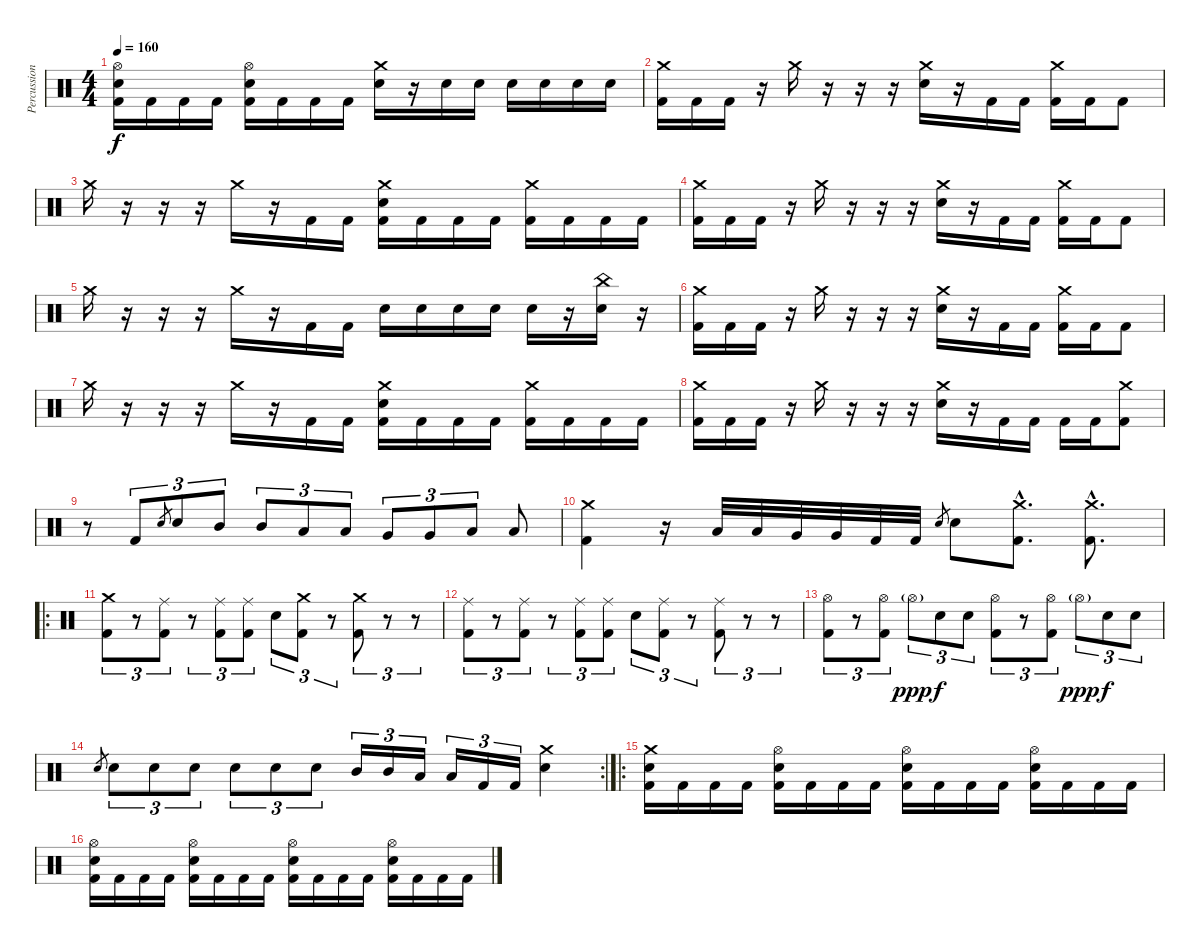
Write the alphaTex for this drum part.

\track ("Percussion" "Percussion") {instrument percussion}
\staff {score}
\articulation defaults
\ts (4 4)
\tempo 160
\clef neutral
\ks c
("Hi-Hat (open)" "Kick (hit) 2" "Electric Snare (hit)").16{dy f} "Kick (hit) 2".16 "Kick (hit) 2".16 "Kick (hit) 2".16 ("Hi-Hat (open)" "Kick (hit) 2" "Electric Snare (hit)").16 "Kick (hit) 2".16 "Kick (hit) 2".16 "Kick (hit) 2".16 ("Crash medium (hit)" "Electric Snare (hit)").16 r.16 "Electric Snare (hit)".16 "Electric Snare (hit)".16 "Electric Snare (hit)".16 "Electric Snare (hit)".16 "Electric Snare (hit)".16 "Electric Snare (hit)".16 |
("Crash medium (hit)" "Kick (hit) 2").16 "Kick (hit) 2".16 "Kick (hit) 2".16 r.16 "Crash medium (hit)".16 r.16 r.16 r.16 ("Crash medium (hit)" "Electric Snare (hit)").16 r.16 "Kick (hit) 2".16 "Kick (hit) 2".16 ("Crash medium (hit)" "Kick (hit) 2").16 "Kick (hit) 2".16 "Kick (hit) 2".8 |
"Crash medium (hit)".16 r.16 r.16 r.16 "Crash medium (hit)".16 r.16 "Kick (hit) 2".16 "Kick (hit) 2".16 ("Crash medium (hit)" "Kick (hit) 2" "Electric Snare (hit)").16 "Kick (hit) 2".16 "Kick (hit) 2".16 "Kick (hit) 2".16 ("Crash medium (hit)" "Kick (hit) 2").16 "Kick (hit) 2".16 "Kick (hit) 2".16 "Kick (hit) 2".16 |
("Crash medium (hit)" "Kick (hit) 2").16 "Kick (hit) 2".16 "Kick (hit) 2".16 r.16 "Crash medium (hit)".16 r.16 r.16 r.16 ("Crash medium (hit)" "Electric Snare (hit)").16 r.16 "Kick (hit) 2".16 "Kick (hit) 2".16 ("Crash medium (hit)" "Kick (hit) 2").16 "Kick (hit) 2".16 "Kick (hit) 2".8 |
"Crash medium (hit)".16 r.16 r.16 r.16 "Crash medium (hit)".16 r.16 "Kick (hit) 2".16 "Kick (hit) 2".16 "Electric Snare (hit)".16 "Electric Snare (hit)".16 "Electric Snare (hit)".16 "Electric Snare (hit)".16 "Electric Snare (hit)".16 r.16 ("China (hit)" "Electric Snare (hit)").16 r.16 |
("Crash medium (hit)" "Kick (hit) 2").16 "Kick (hit) 2".16 "Kick (hit) 2".16 r.16 "Crash medium (hit)".16 r.16 r.16 r.16 ("Crash medium (hit)" "Electric Snare (hit)").16 r.16 "Kick (hit) 2".16 "Kick (hit) 2".16 ("Crash medium (hit)" "Kick (hit) 2").16 "Kick (hit) 2".16 "Kick (hit) 2".8 |
"Crash medium (hit)".16 r.16 r.16 r.16 "Crash medium (hit)".16 r.16 "Kick (hit) 2".16 "Kick (hit) 2".16 ("Crash medium (hit)" "Kick (hit) 2" "Electric Snare (hit)").16 "Kick (hit) 2".16 "Kick (hit) 2".16 "Kick (hit) 2".16 ("Crash medium (hit)" "Kick (hit) 2").16 "Kick (hit) 2".16 "Kick (hit) 2".16 "Kick (hit) 2".16 |
("Crash medium (hit)" "Kick (hit) 2").16 "Kick (hit) 2".16 "Kick (hit) 2".16 r.16 "Crash medium (hit)".16 r.16 r.16 r.16 ("Crash medium (hit)" "Electric Snare (hit)").16 r.16 "Kick (hit) 2".16 "Kick (hit) 2".16 "Kick (hit) 2".16 "Kick (hit) 2".16 ("Crash medium (hit)" "Kick (hit) 2").8 |
r.8 "Kick (hit) 2".8{tu (3 2)} "Electric Snare (hit)".8{gr} "Electric Snare (hit)".8{tu (3 2)} "Mid Tom (hit)".8{tu (3 2)} "Mid Tom (hit)".8{tu (3 2)} "Low Tom (hit)".8{tu (3 2)} "Low Tom (hit)".8{tu (3 2)} "Very Low Tom (hit)".8{tu (3 2)} "Very Low Tom (hit)".8{tu (3 2)} "Low Floor Tom (hit)".8{tu (3 2)} "Low Floor Tom (hit)".8 |
("Crash medium (hit)" "Kick (hit) 2").4 r.16 "Low Tom (hit)".32 "Low Tom (hit)".32 "Very Low Tom (hit)".32 "Very Low Tom (hit)".32 "Kick (hit) 2".32 "Kick (hit) 2".32 "Electric Snare (hit)".8{gr} "Electric Snare (hit)".8 ("Crash medium (hit)"{hac} "Kick (hit) 2"{hac}).8{d} ("Crash medium (hit)"{hac} "Kick (hit) 2"{hac}).8{d} |
\ro
("Crash medium (hit)" "Kick (hit) 2").8{tu (3 2)} r.8{tu (3 2)} ("Ride (middle)" "Kick (hit) 2").8{tu (3 2)} r.8{tu (3 2)} ("Ride (middle)" "Kick (hit) 2").8{tu (3 2)} ("Ride (middle)" "Kick (hit) 2").8{tu (3 2)} "Electric Snare (hit)".8{tu (3 2)} ("Crash medium (hit)" "Kick (hit) 2").8{tu (3 2)} r.8{tu (3 2)} ("Crash medium (hit)" "Kick (hit) 2").8{tu (3 2)} r.8{tu (3 2)} r.8{tu (3 2)} |
("Ride (middle)" "Kick (hit) 2").8{tu (3 2)} r.8{tu (3 2)} ("Ride (middle)" "Kick (hit) 2").8{tu (3 2)} r.8{tu (3 2)} ("Ride (middle)" "Kick (hit) 2").8{tu (3 2)} ("Ride (middle)" "Kick (hit) 2").8{tu (3 2)} "Electric Snare (hit)".8{tu (3 2)} ("Ride (middle)" "Kick (hit) 2").8{tu (3 2)} r.8{tu (3 2)} ("Ride (middle)" "Kick (hit) 2").8{tu (3 2)} r.8{tu (3 2)} r.8{tu (3 2)} |
("Hi-Hat (open)" "Kick (hit) 2").8{tu (3 2)} r.8{tu (3 2)} ("Hi-Hat (open)" "Kick (hit) 2").8{tu (3 2)} "Hi-Hat (open)"{g}.8{tu (3 2) dy ppp} "Electric Snare (hit)".8{tu (3 2) dy f} "Electric Snare (hit)".8{tu (3 2)} ("Hi-Hat (open)" "Kick (hit) 2").8{tu (3 2)} r.8{tu (3 2)} ("Hi-Hat (open)" "Kick (hit) 2").8{tu (3 2)} "Hi-Hat (open)"{g}.8{tu (3 2) dy ppp} "Electric Snare (hit)".8{tu (3 2) dy f} "Electric Snare (hit)".8{tu (3 2)} |
\rc 2 "Electric Snare (hit)".8{gr} "Electric Snare (hit)".8{tu (3 2)} "Electric Snare (hit)".8{tu (3 2)} "Electric Snare (hit)".8{tu (3 2)} "Electric Snare (hit)".8{tu (3 2)} "Electric Snare (hit)".8{tu (3 2)} "Electric Snare (hit)".8{tu (3 2)} "Mid Tom (hit)".16{tu (3 2)} "Mid Tom (hit)".16{tu (3 2)} "Low Tom (hit)".16{tu (3 2)} "Low Tom (hit)".16{tu (3 2)} "Kick (hit) 2".16{tu (3 2)} "Kick (hit) 2".16{tu (3 2)}
("Crash medium (hit)" "Electric Snare (hit)").4 |
\ro
("Crash medium (hit)" "Electric Snare (hit)" "Kick (hit) 2").16 "Kick (hit) 2".16 "Kick (hit) 2".16 "Kick (hit) 2".16 ("Hi-Hat (open)" "Electric Snare (hit)" "Kick (hit) 2").16 "Kick (hit) 2".16 "Kick (hit) 2".16 "Kick (hit) 2".16 ("Hi-Hat (open)" "Electric Snare (hit)" "Kick (hit) 2").16 "Kick (hit) 2".16 "Kick (hit) 2".16 "Kick (hit) 2".16 ("Hi-Hat (open)" "Electric Snare (hit)" "Kick (hit) 2").16 "Kick (hit) 2".16 "Kick (hit) 2".16 "Kick (hit) 2".16 |
("Hi-Hat (open)" "Electric Snare (hit)" "Kick (hit) 2").16 "Kick (hit) 2".16 "Kick (hit) 2".16 "Kick (hit) 2".16 ("Hi-Hat (open)" "Electric Snare (hit)" "Kick (hit) 2").16 "Kick (hit) 2".16 "Kick (hit) 2".16 "Kick (hit) 2".16 ("Hi-Hat (open)" "Electric Snare (hit)" "Kick (hit) 2").16 "Kick (hit) 2".16 "Kick (hit) 2".16 "Kick (hit) 2".16 ("Hi-Hat (open)" "Electric Snare (hit)" "Kick (hit) 2").16 "Kick (hit) 2".16 "Kick (hit) 2".16 "Kick (hit) 2".16
